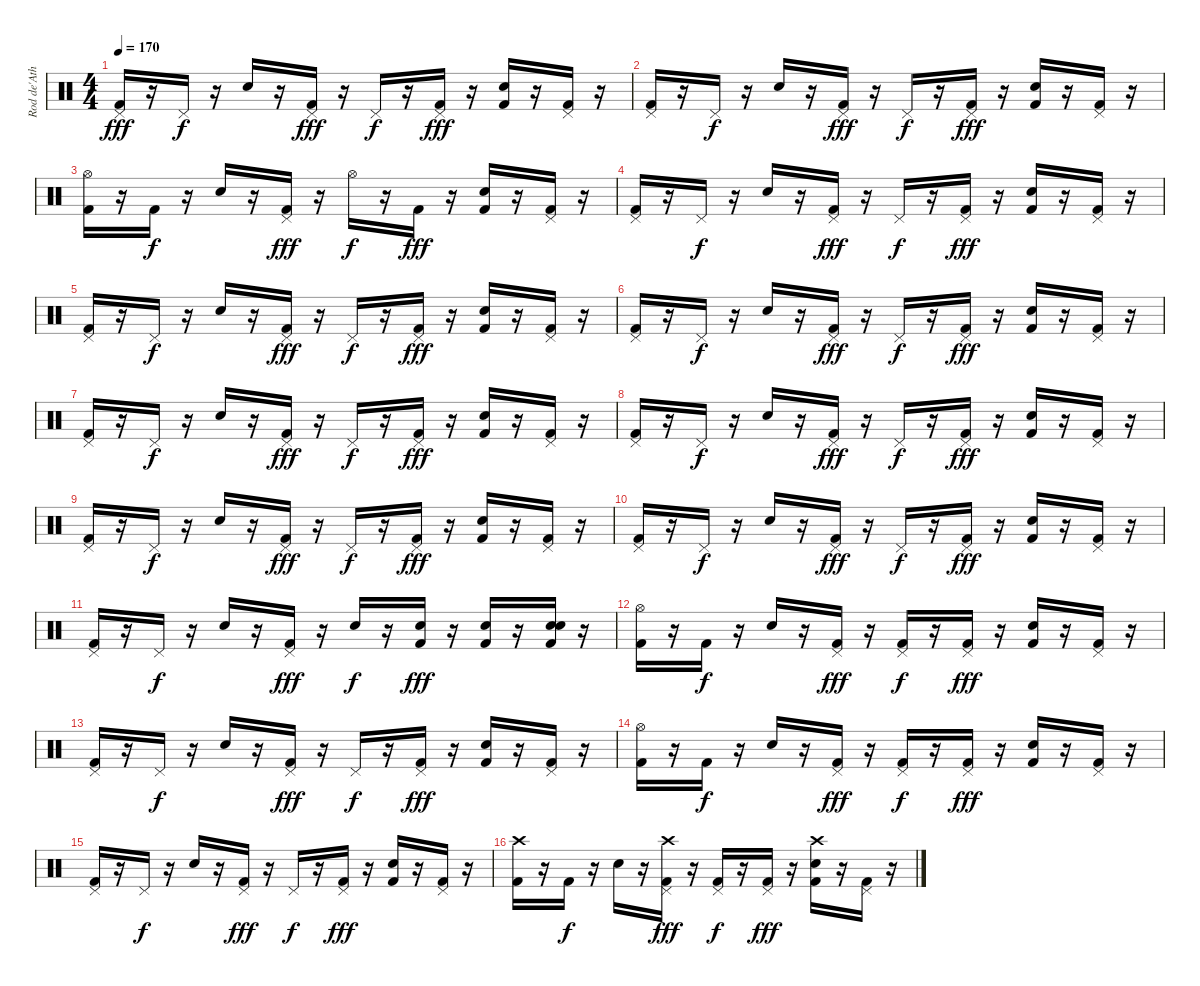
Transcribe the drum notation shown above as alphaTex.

\track ("Rod de'Ath" "Rod de'Ath") {instrument percussion}
\staff {score}
\articulation defaults
\ts (4 4)
\tempo 170
\clef neutral
\ks c
("Pedal Hi-Hat (hit)" "Kick (hit) 2").16{dy fff} r.16 "Pedal Hi-Hat (hit)".16{dy f} r.16 "Snare (hit) 2".16 r.16 ("Pedal Hi-Hat (hit)" "Kick (hit) 2").16{dy fff} r.16 "Pedal Hi-Hat (hit)".16{dy f} r.16 ("Pedal Hi-Hat (hit)" "Kick (hit) 2").16{dy fff} r.16 ("Electric Snare (hit)" "Kick (hit) 2").16 r.16 ("Pedal Hi-Hat (hit)" "Kick (hit) 2").16 r.16 |
("Pedal Hi-Hat (hit)" "Kick (hit) 2").16 r.16 "Pedal Hi-Hat (hit)".16{dy f} r.16 "Snare (hit) 2".16 r.16 ("Pedal Hi-Hat (hit)" "Kick (hit) 2").16{dy fff} r.16 "Pedal Hi-Hat (hit)".16{dy f} r.16 ("Pedal Hi-Hat (hit)" "Kick (hit) 2").16{dy fff} r.16 ("Electric Snare (hit)" "Kick (hit) 2").16 r.16 ("Pedal Hi-Hat (hit)" "Kick (hit) 2").16 r.16 |
("Hi-Hat (open)" "Kick (hit) 2").16 r.16 "Kick (hit) 2".16{dy f} r.16 "Snare (hit) 2".16 r.16 ("Pedal Hi-Hat (hit)" "Kick (hit) 2").16{dy fff} r.16 "Hi-Hat (open)".16{dy f} r.16 "Kick (hit) 2".16{dy fff} r.16 ("Electric Snare (hit)" "Kick (hit) 2").16 r.16 ("Pedal Hi-Hat (hit)" "Kick (hit) 2").16 r.16 |
("Pedal Hi-Hat (hit)" "Kick (hit) 2").16 r.16 "Pedal Hi-Hat (hit)".16{dy f} r.16 "Snare (hit) 2".16 r.16 ("Pedal Hi-Hat (hit)" "Kick (hit) 2").16{dy fff} r.16 "Pedal Hi-Hat (hit)".16{dy f} r.16 ("Pedal Hi-Hat (hit)" "Kick (hit) 2").16{dy fff} r.16 ("Electric Snare (hit)" "Kick (hit) 2").16 r.16 ("Pedal Hi-Hat (hit)" "Kick (hit) 2").16 r.16 |
("Pedal Hi-Hat (hit)" "Kick (hit) 2").16 r.16 "Pedal Hi-Hat (hit)".16{dy f} r.16 "Snare (hit) 2".16 r.16 ("Pedal Hi-Hat (hit)" "Kick (hit) 2").16{dy fff} r.16 "Pedal Hi-Hat (hit)".16{dy f} r.16 ("Pedal Hi-Hat (hit)" "Kick (hit) 2").16{dy fff} r.16 ("Electric Snare (hit)" "Kick (hit) 2").16 r.16 ("Pedal Hi-Hat (hit)" "Kick (hit) 2").16 r.16 |
("Pedal Hi-Hat (hit)" "Kick (hit) 2").16 r.16 "Pedal Hi-Hat (hit)".16{dy f} r.16 "Snare (hit) 2".16 r.16 ("Pedal Hi-Hat (hit)" "Kick (hit) 2").16{dy fff} r.16 "Pedal Hi-Hat (hit)".16{dy f} r.16 ("Pedal Hi-Hat (hit)" "Kick (hit) 2").16{dy fff} r.16 ("Electric Snare (hit)" "Kick (hit) 2").16 r.16 ("Pedal Hi-Hat (hit)" "Kick (hit) 2").16 r.16 |
("Pedal Hi-Hat (hit)" "Kick (hit) 2").16 r.16 "Pedal Hi-Hat (hit)".16{dy f} r.16 "Snare (hit) 2".16 r.16 ("Pedal Hi-Hat (hit)" "Kick (hit) 2").16{dy fff} r.16 "Pedal Hi-Hat (hit)".16{dy f} r.16 ("Pedal Hi-Hat (hit)" "Kick (hit) 2").16{dy fff} r.16 ("Electric Snare (hit)" "Kick (hit) 2").16 r.16 ("Pedal Hi-Hat (hit)" "Kick (hit) 2").16 r.16 |
("Pedal Hi-Hat (hit)" "Kick (hit) 2").16 r.16 "Pedal Hi-Hat (hit)".16{dy f} r.16 "Snare (hit) 2".16 r.16 ("Pedal Hi-Hat (hit)" "Kick (hit) 2").16{dy fff} r.16 "Pedal Hi-Hat (hit)".16{dy f} r.16 ("Pedal Hi-Hat (hit)" "Kick (hit) 2").16{dy fff} r.16 ("Electric Snare (hit)" "Kick (hit) 2").16 r.16 ("Pedal Hi-Hat (hit)" "Kick (hit) 2").16 r.16 |
("Pedal Hi-Hat (hit)" "Kick (hit) 2").16 r.16 "Pedal Hi-Hat (hit)".16{dy f} r.16 "Snare (hit) 2".16 r.16 ("Pedal Hi-Hat (hit)" "Kick (hit) 2").16{dy fff} r.16 "Pedal Hi-Hat (hit)".16{dy f} r.16 ("Pedal Hi-Hat (hit)" "Kick (hit) 2").16{dy fff} r.16 ("Electric Snare (hit)" "Kick (hit) 2").16 r.16 ("Pedal Hi-Hat (hit)" "Kick (hit) 2").16 r.16 |
("Pedal Hi-Hat (hit)" "Kick (hit) 2").16 r.16 "Pedal Hi-Hat (hit)".16{dy f} r.16 "Snare (hit) 2".16 r.16 ("Pedal Hi-Hat (hit)" "Kick (hit) 2").16{dy fff} r.16 "Pedal Hi-Hat (hit)".16{dy f} r.16 ("Pedal Hi-Hat (hit)" "Kick (hit) 2").16{dy fff} r.16 ("Electric Snare (hit)" "Kick (hit) 2").16 r.16 ("Pedal Hi-Hat (hit)" "Kick (hit) 2").16 r.16 |
("Pedal Hi-Hat (hit)" "Kick (hit) 2").16 r.16 "Pedal Hi-Hat (hit)".16{dy f} r.16 "Snare (hit) 2".16 r.16 ("Pedal Hi-Hat (hit)" "Kick (hit) 2").16{dy fff} r.16 "Electric Snare (hit)".16{dy f} r.16 ("Electric Snare (hit)" "Kick (hit) 2").16{dy fff} r.16 ("Electric Snare (hit)" "Kick (hit) 2").16 r.16 ("Electric Snare (hit)" "Electric Snare (hit)" "Kick (hit) 2").16 r.16 |
("Hi-Hat (open)" "Kick (hit) 2").16 r.16 "Kick (hit) 2".16{dy f} r.16 "Snare (hit) 2".16 r.16 ("Pedal Hi-Hat (hit)" "Kick (hit) 2").16{dy fff} r.16 ("Pedal Hi-Hat (hit)" "Kick (hit) 2").16{dy f} r.16 ("Pedal Hi-Hat (hit)" "Kick (hit) 2").16{dy fff} r.16 ("Electric Snare (hit)" "Kick (hit) 2").16 r.16 ("Pedal Hi-Hat (hit)" "Kick (hit) 2").16 r.16 |
("Pedal Hi-Hat (hit)" "Kick (hit) 2").16 r.16 "Pedal Hi-Hat (hit)".16{dy f} r.16 "Snare (hit) 2".16 r.16 ("Pedal Hi-Hat (hit)" "Kick (hit) 2").16{dy fff} r.16 "Pedal Hi-Hat (hit)".16{dy f} r.16 ("Pedal Hi-Hat (hit)" "Kick (hit) 2").16{dy fff} r.16 ("Electric Snare (hit)" "Kick (hit) 2").16 r.16 ("Pedal Hi-Hat (hit)" "Kick (hit) 2").16 r.16 |
("Hi-Hat (open)" "Kick (hit) 2").16 r.16 "Kick (hit) 2".16{dy f} r.16 "Snare (hit) 2".16 r.16 ("Pedal Hi-Hat (hit)" "Kick (hit) 2").16{dy fff} r.16 ("Pedal Hi-Hat (hit)" "Kick (hit) 2").16{dy f} r.16 ("Pedal Hi-Hat (hit)" "Kick (hit) 2").16{dy fff} r.16 ("Electric Snare (hit)" "Kick (hit) 2").16 r.16 ("Pedal Hi-Hat (hit)" "Kick (hit) 2").16 r.16 |
("Pedal Hi-Hat (hit)" "Kick (hit) 2").16 r.16 "Pedal Hi-Hat (hit)".16{dy f} r.16 "Snare (hit) 2".16 r.16 ("Pedal Hi-Hat (hit)" "Kick (hit) 2").16{dy fff} r.16 "Pedal Hi-Hat (hit)".16{dy f} r.16 ("Pedal Hi-Hat (hit)" "Kick (hit) 2").16{dy fff} r.16 ("Electric Snare (hit)" "Kick (hit) 2").16 r.16 ("Pedal Hi-Hat (hit)" "Kick (hit) 2").16 r.16 |
("Crash high (hit)" "Kick (hit) 2").16 r.16 "Kick (hit) 2".16{dy f} r.16 "Snare (hit) 2".16 r.16 ("Crash high (hit)" "Pedal Hi-Hat (hit)" "Kick (hit) 2").16{dy fff} r.16 ("Pedal Hi-Hat (hit)" "Kick (hit) 2").16{dy f} r.16 ("Pedal Hi-Hat (hit)" "Kick (hit) 2").16{dy fff} r.16 ("Crash high (hit)" "Electric Snare (hit)" "Kick (hit) 2").16 r.16 ("Pedal Hi-Hat (hit)" "Kick (hit) 2").16 r.16
